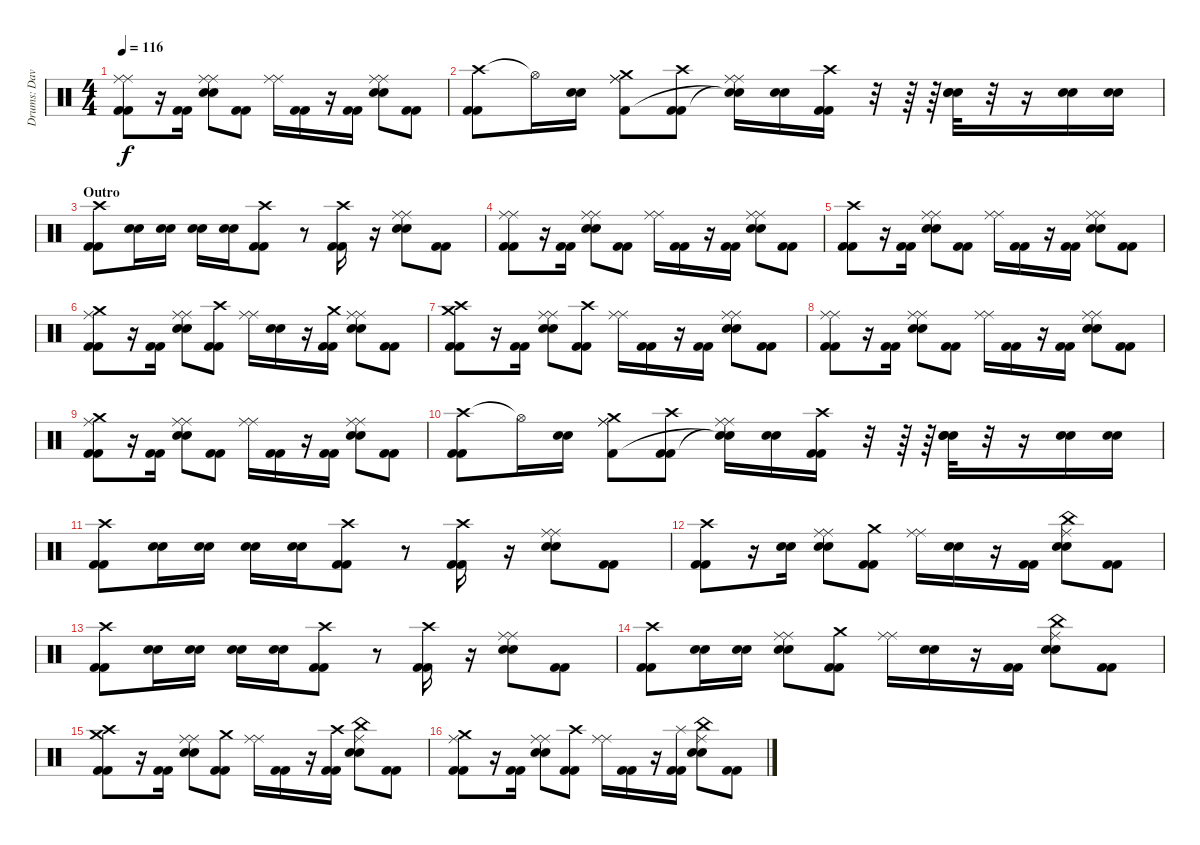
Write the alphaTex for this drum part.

\track ("Drums: Dave Krusen" "Drums: Dav") {instrument percussion}
\staff {score}
\articulation defaults
\ts (4 4)
\tempo 116
\clef neutral
\ks c
("Ride (middle)" "Ride (middle)" "Kick (hit) 2" "Kick (hit) 2").8{dy f} r.16 ("Kick (hit) 2" "Kick (hit) 2").16 ("Ride (middle)" "Ride (middle)" "Electric Snare (hit)" "Electric Snare (hit)").8 ("Kick (hit) 2" "Kick (hit) 2").8 ("Ride (middle)" "Ride (middle)").16 ("Kick (hit) 2" "Kick (hit) 2").16 r.16 ("Kick (hit) 2" "Kick (hit) 2").16 ("Ride (middle)" "Ride (middle)" "Electric Snare (hit)" "Electric Snare (hit)").8 ("Kick (hit) 2" "Kick (hit) 2").8 |
("Crash high (hit)" "Kick (hit) 2" "Kick (hit) 2").8 "Hi-Hat (open)"{t}.16 ("Electric Snare (hit)" "Electric Snare (hit)").16 ("Ride (middle)" "Ride (middle)" "Crash medium (hit)" "Kick (hit) 2").8 ("Crash high (hit)" "Kick (hit) 2" "Kick (hit) 2").8 ("Ride (middle)" "Ride (middle)" "Electric Snare (hit)"{t} "Snare (hit)"{t}).16 ("Electric Snare (hit)" "Electric Snare (hit)").16 ("Crash high (hit)" "Kick (hit) 2" "Kick (hit) 2").16 r.32 r.64 r.64 ("Electric Snare (hit)" "Electric Snare (hit)" "Electric Snare (hit)").32 r.32 r.16 ("Electric Snare (hit)" "Electric Snare (hit)").16 ("Electric Snare (hit)" "Electric Snare (hit)").16 |
\section ("" "Outro")
("Crash high (hit)" "Kick (hit) 2" "Kick (hit) 2").8 ("Electric Snare (hit)" "Electric Snare (hit)").16 ("Electric Snare (hit)" "Electric Snare (hit)").16 ("Electric Snare (hit)" "Electric Snare (hit)").16 ("Electric Snare (hit)" "Electric Snare (hit)").16 ("Crash high (hit)" "Kick (hit) 2" "Kick (hit) 2").8 r.8 ("Crash high (hit)" "Kick (hit) 2" "Kick (hit) 2").16 r.16 ("Ride (middle)" "Ride (middle)" "Electric Snare (hit)" "Electric Snare (hit)").8 ("Kick (hit) 2" "Kick (hit) 2").8 |
("Ride (middle)" "Ride (middle)" "Kick (hit) 2" "Kick (hit) 2").8 r.16 ("Kick (hit) 2" "Kick (hit) 2").16 ("Ride (middle)" "Ride (middle)" "Electric Snare (hit)" "Electric Snare (hit)").8 ("Kick (hit) 2" "Kick (hit) 2").8 ("Ride (middle)" "Ride (middle)").16 ("Kick (hit) 2" "Kick (hit) 2").16 r.16 ("Kick (hit) 2" "Kick (hit) 2").16 ("Ride (middle)" "Ride (middle)" "Electric Snare (hit)" "Electric Snare (hit)").8 ("Kick (hit) 2" "Kick (hit) 2").8 |
("Crash high (hit)" "Kick (hit) 2" "Kick (hit) 2").8 r.16 ("Kick (hit) 2" "Kick (hit) 2").16 ("Ride (middle)" "Ride (middle)" "Electric Snare (hit)" "Electric Snare (hit)").8 ("Kick (hit) 2" "Kick (hit) 2").8 ("Ride (middle)" "Ride (middle)").16 ("Kick (hit) 2" "Kick (hit) 2").16 r.16 ("Kick (hit) 2" "Kick (hit) 2").16 ("Ride (middle)" "Ride (middle)" "Electric Snare (hit)" "Electric Snare (hit)").8 ("Kick (hit) 2" "Kick (hit) 2").8 |
("Ride (middle)" "Crash medium (hit)" "Kick (hit) 2" "Kick (hit) 2").8 r.16 ("Kick (hit) 2" "Kick (hit) 2").16 ("Ride (middle)" "Ride (middle)" "Electric Snare (hit)" "Electric Snare (hit)").8 ("Crash high (hit)" "Kick (hit) 2" "Kick (hit) 2").8 ("Ride (middle)" "Ride (middle)").16 ("Electric Snare (hit)" "Electric Snare (hit)").16 r.16 ("Crash medium (hit)" "Kick (hit) 2" "Kick (hit) 2").16 ("Ride (middle)" "Ride (middle)" "Electric Snare (hit)" "Electric Snare (hit)").8 ("Kick (hit) 2" "Kick (hit) 2").8 |
("Crash medium (hit)" "Crash high (hit)" "Kick (hit) 2" "Kick (hit) 2").8 r.16 ("Kick (hit) 2" "Kick (hit) 2").16 ("Ride (middle)" "Ride (middle)" "Electric Snare (hit)" "Electric Snare (hit)").8 ("Crash high (hit)" "Kick (hit) 2" "Kick (hit) 2").8 ("Ride (middle)" "Ride (middle)").16 ("Kick (hit) 2" "Kick (hit) 2").16 r.16 ("Kick (hit) 2" "Kick (hit) 2").16 ("Ride (middle)" "Ride (middle)" "Electric Snare (hit)" "Electric Snare (hit)").8 ("Kick (hit) 2" "Kick (hit) 2").8 |
("Ride (middle)" "Ride (middle)" "Kick (hit) 2" "Kick (hit) 2").8 r.16 ("Kick (hit) 2" "Kick (hit) 2").16 ("Ride (middle)" "Ride (middle)" "Electric Snare (hit)" "Electric Snare (hit)").8 ("Kick (hit) 2" "Kick (hit) 2").8 ("Ride (middle)" "Ride (middle)").16 ("Kick (hit) 2" "Kick (hit) 2").16 r.16 ("Kick (hit) 2" "Kick (hit) 2").16 ("Ride (middle)" "Ride (middle)" "Electric Snare (hit)" "Electric Snare (hit)").8 ("Kick (hit) 2" "Kick (hit) 2").8 |
("Ride (middle)" "Crash medium (hit)" "Kick (hit) 2" "Kick (hit) 2").8 r.16 ("Kick (hit) 2" "Kick (hit) 2").16 ("Ride (middle)" "Ride (middle)" "Electric Snare (hit)" "Electric Snare (hit)").8 ("Kick (hit) 2" "Kick (hit) 2").8 ("Ride (middle)" "Ride (middle)").16 ("Kick (hit) 2" "Kick (hit) 2").16 r.16 ("Kick (hit) 2" "Kick (hit) 2").16 ("Ride (middle)" "Ride (middle)" "Electric Snare (hit)" "Electric Snare (hit)").8 ("Kick (hit) 2" "Kick (hit) 2").8 |
("Crash high (hit)" "Kick (hit) 2" "Kick (hit) 2").8 "Hi-Hat (open)"{t}.16 ("Electric Snare (hit)" "Electric Snare (hit)").16 ("Ride (middle)" "Ride (middle)" "Crash medium (hit)" "Kick (hit) 2").8 ("Crash high (hit)" "Kick (hit) 2" "Kick (hit) 2").8 ("Ride (middle)" "Ride (middle)" "Electric Snare (hit)"{t} "Snare (hit)"{t}).16 ("Electric Snare (hit)" "Electric Snare (hit)").16 ("Crash high (hit)" "Kick (hit) 2" "Kick (hit) 2").16 r.32 r.64 r.64 ("Electric Snare (hit)" "Electric Snare (hit)" "Electric Snare (hit)").32 r.32 r.16 ("Electric Snare (hit)" "Electric Snare (hit)").16 ("Electric Snare (hit)" "Electric Snare (hit)").16 |
\section ("" "")
("Crash high (hit)" "Kick (hit) 2" "Kick (hit) 2").8 ("Electric Snare (hit)" "Electric Snare (hit)").16 ("Electric Snare (hit)" "Electric Snare (hit)").16 ("Electric Snare (hit)" "Electric Snare (hit)").16 ("Electric Snare (hit)" "Electric Snare (hit)").16 ("Crash high (hit)" "Kick (hit) 2" "Kick (hit) 2").8 r.8 ("Crash high (hit)" "Kick (hit) 2" "Kick (hit) 2").16 r.16 ("Ride (middle)" "Ride (middle)" "Electric Snare (hit)" "Electric Snare (hit)").8 ("Kick (hit) 2" "Kick (hit) 2").8 |
("Crash high (hit)" "Kick (hit) 2" "Kick (hit) 2").8 r.16 ("Electric Snare (hit)" "Electric Snare (hit)").16 ("Ride (middle)" "Ride (middle)" "Electric Snare (hit)" "Electric Snare (hit)").8 ("Crash medium (hit)" "Kick (hit) 2" "Kick (hit) 2").8 ("Ride (middle)" "Ride (middle)").16 ("Electric Snare (hit)" "Electric Snare (hit)").16 r.16 ("Kick (hit) 2" "Kick (hit) 2").16 ("Ride (middle)" "China (hit)" "Electric Snare (hit)" "Electric Snare (hit)").8 ("Kick (hit) 2" "Kick (hit) 2").8 |
("Crash high (hit)" "Kick (hit) 2" "Kick (hit) 2").8 ("Electric Snare (hit)" "Electric Snare (hit)").16 ("Electric Snare (hit)" "Electric Snare (hit)").16 ("Electric Snare (hit)" "Electric Snare (hit)").16 ("Electric Snare (hit)" "Electric Snare (hit)").16 ("Crash high (hit)" "Kick (hit) 2" "Kick (hit) 2").8 r.8 ("Crash high (hit)" "Kick (hit) 2" "Kick (hit) 2").16 r.16 ("Ride (middle)" "Ride (middle)" "Electric Snare (hit)" "Electric Snare (hit)").8 ("Kick (hit) 2" "Kick (hit) 2").8 |
("Crash high (hit)" "Kick (hit) 2" "Kick (hit) 2").8 ("Electric Snare (hit)" "Electric Snare (hit)").16 ("Electric Snare (hit)" "Electric Snare (hit)").16 ("Ride (middle)" "Ride (middle)" "Electric Snare (hit)" "Electric Snare (hit)").8 ("Crash medium (hit)" "Kick (hit) 2" "Kick (hit) 2").8 ("Ride (middle)" "Ride (middle)").16 ("Electric Snare (hit)" "Electric Snare (hit)").16 r.16 ("Kick (hit) 2" "Kick (hit) 2").16 ("Ride (middle)" "China (hit)" "Electric Snare (hit)" "Electric Snare (hit)").8 ("Kick (hit) 2" "Kick (hit) 2").8 |
("Crash medium (hit)" "Crash high (hit)" "Kick (hit) 2" "Kick (hit) 2").8 r.16 ("Kick (hit) 2" "Kick (hit) 2").16 ("Ride (middle)" "Ride (middle)" "Electric Snare (hit)" "Electric Snare (hit)").8 ("Crash medium (hit)" "Kick (hit) 2" "Kick (hit) 2").8 ("Ride (middle)" "Ride (middle)").16 ("Kick (hit) 2" "Kick (hit) 2").16 r.16 ("Crash high (hit)" "Kick (hit) 2" "Kick (hit) 2").16 ("Ride (middle)" "China (hit)" "Electric Snare (hit)" "Electric Snare (hit)").8 ("Kick (hit) 2" "Kick (hit) 2").8 |
("Crash medium (hit)" "Ride (middle)" "Kick (hit) 2" "Kick (hit) 2").8 r.16 ("Kick (hit) 2" "Kick (hit) 2").16 ("Ride (middle)" "Ride (middle)" "Electric Snare (hit)" "Electric Snare (hit)").8 ("Crash high (hit)" "Kick (hit) 2" "Kick (hit) 2").8 ("Ride (middle)" "Ride (middle)").16 ("Kick (hit) 2" "Kick (hit) 2").16 r.16 ("Splash (hit)" "Kick (hit) 2" "Kick (hit) 2").16 ("Ride (middle)" "China (hit)" "Electric Snare (hit)" "Electric Snare (hit)").8 ("Kick (hit) 2" "Kick (hit) 2").8
